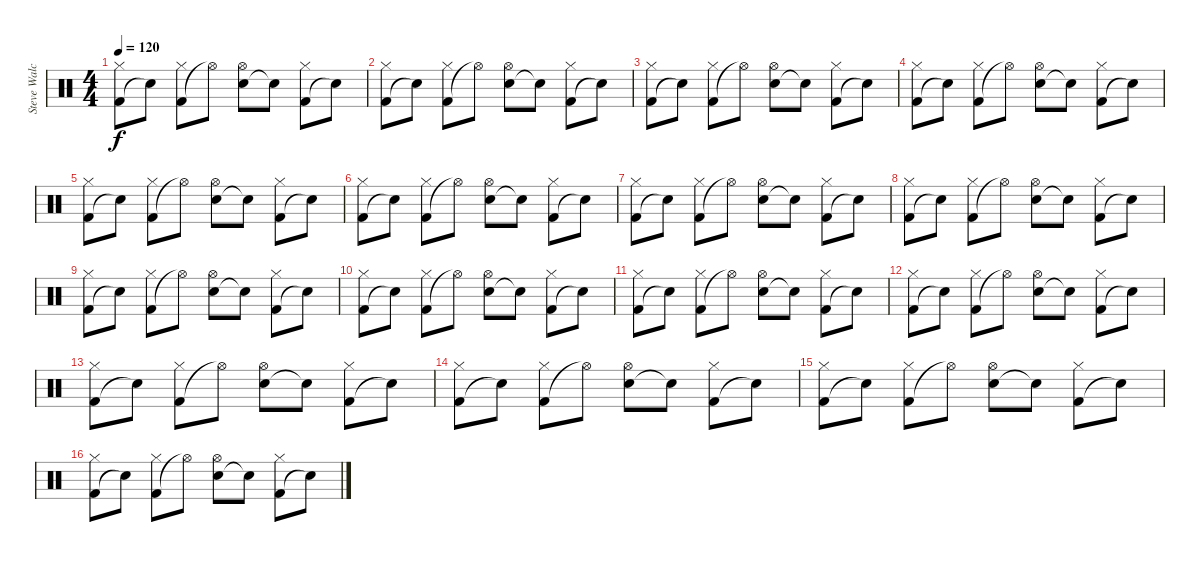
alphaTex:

\track ("Steve Walchoz" "Steve Walc") {instrument percussion}
\staff {score}
\articulation defaults
\ts (4 4)
\tempo 120
\clef neutral
\ks c
("Kick (hit) 2" "Hi-Hat (closed)").8{dy f} "Snare (hit)"{t}.8 ("Kick (hit) 2" "Hi-Hat (closed)").8 "Hi-Hat (open)"{t}.8 ("Electric Snare (hit)" "Hi-Hat (open)").8 "Snare (hit)"{t}.8 ("Kick (hit) 2" "Hi-Hat (closed)").8 "Snare (hit)"{t}.8 |
("Kick (hit) 2" "Hi-Hat (closed)").8 "Snare (hit)"{t}.8 ("Kick (hit) 2" "Hi-Hat (closed)").8 "Hi-Hat (open)"{t}.8 ("Electric Snare (hit)" "Hi-Hat (open)").8 "Snare (hit)"{t}.8 ("Kick (hit) 2" "Hi-Hat (closed)").8 "Snare (hit)"{t}.8 |
("Kick (hit) 2" "Hi-Hat (closed)").8 "Snare (hit)"{t}.8 ("Kick (hit) 2" "Hi-Hat (closed)").8 "Hi-Hat (open)"{t}.8 ("Electric Snare (hit)" "Hi-Hat (open)").8 "Snare (hit)"{t}.8 ("Kick (hit) 2" "Hi-Hat (closed)").8 "Snare (hit)"{t}.8 |
("Kick (hit) 2" "Hi-Hat (closed)").8 "Snare (hit)"{t}.8 ("Kick (hit) 2" "Hi-Hat (closed)").8 "Hi-Hat (open)"{t}.8 ("Electric Snare (hit)" "Hi-Hat (open)").8 "Snare (hit)"{t}.8 ("Kick (hit) 2" "Hi-Hat (closed)").8 "Snare (hit)"{t}.8 |
("Kick (hit) 2" "Hi-Hat (closed)").8 "Snare (hit)"{t}.8 ("Kick (hit) 2" "Hi-Hat (closed)").8 "Hi-Hat (open)"{t}.8 ("Electric Snare (hit)" "Hi-Hat (open)").8 "Snare (hit)"{t}.8 ("Kick (hit) 2" "Hi-Hat (closed)").8 "Snare (hit)"{t}.8 |
("Kick (hit) 2" "Hi-Hat (closed)").8 "Snare (hit)"{t}.8 ("Kick (hit) 2" "Hi-Hat (closed)").8 "Hi-Hat (open)"{t}.8 ("Electric Snare (hit)" "Hi-Hat (open)").8 "Snare (hit)"{t}.8 ("Kick (hit) 2" "Hi-Hat (closed)").8 "Snare (hit)"{t}.8 |
("Kick (hit) 2" "Hi-Hat (closed)").8 "Snare (hit)"{t}.8 ("Kick (hit) 2" "Hi-Hat (closed)").8 "Hi-Hat (open)"{t}.8 ("Electric Snare (hit)" "Hi-Hat (open)").8 "Snare (hit)"{t}.8 ("Kick (hit) 2" "Hi-Hat (closed)").8 "Snare (hit)"{t}.8 |
("Kick (hit) 2" "Hi-Hat (closed)").8 "Snare (hit)"{t}.8 ("Kick (hit) 2" "Hi-Hat (closed)").8 "Hi-Hat (open)"{t}.8 ("Electric Snare (hit)" "Hi-Hat (open)").8 "Snare (hit)"{t}.8 ("Kick (hit) 2" "Hi-Hat (closed)").8 "Snare (hit)"{t}.8 |
("Kick (hit) 2" "Hi-Hat (closed)").8 "Snare (hit)"{t}.8 ("Kick (hit) 2" "Hi-Hat (closed)").8 "Hi-Hat (open)"{t}.8 ("Electric Snare (hit)" "Hi-Hat (open)").8 "Snare (hit)"{t}.8 ("Kick (hit) 2" "Hi-Hat (closed)").8 "Snare (hit)"{t}.8 |
("Kick (hit) 2" "Hi-Hat (closed)").8 "Snare (hit)"{t}.8 ("Kick (hit) 2" "Hi-Hat (closed)").8 "Hi-Hat (open)"{t}.8 ("Electric Snare (hit)" "Hi-Hat (open)").8 "Snare (hit)"{t}.8 ("Kick (hit) 2" "Hi-Hat (closed)").8 "Snare (hit)"{t}.8 |
("Kick (hit) 2" "Hi-Hat (closed)").8 "Snare (hit)"{t}.8 ("Kick (hit) 2" "Hi-Hat (closed)").8 "Hi-Hat (open)"{t}.8 ("Electric Snare (hit)" "Hi-Hat (open)").8 "Snare (hit)"{t}.8 ("Kick (hit) 2" "Hi-Hat (closed)").8 "Snare (hit)"{t}.8 |
("Kick (hit) 2" "Hi-Hat (closed)").8 "Snare (hit)"{t}.8 ("Kick (hit) 2" "Hi-Hat (closed)").8 "Hi-Hat (open)"{t}.8 ("Electric Snare (hit)" "Hi-Hat (open)").8 "Snare (hit)"{t}.8 ("Kick (hit) 2" "Hi-Hat (closed)").8 "Snare (hit)"{t}.8 |
("Kick (hit) 2" "Hi-Hat (closed)").8 "Snare (hit)"{t}.8 ("Kick (hit) 2" "Hi-Hat (closed)").8 "Hi-Hat (open)"{t}.8 ("Electric Snare (hit)" "Hi-Hat (open)").8 "Snare (hit)"{t}.8 ("Kick (hit) 2" "Hi-Hat (closed)").8 "Snare (hit)"{t}.8 |
("Kick (hit) 2" "Hi-Hat (closed)").8 "Snare (hit)"{t}.8 ("Kick (hit) 2" "Hi-Hat (closed)").8 "Hi-Hat (open)"{t}.8 ("Electric Snare (hit)" "Hi-Hat (open)").8 "Snare (hit)"{t}.8 ("Kick (hit) 2" "Hi-Hat (closed)").8 "Snare (hit)"{t}.8 |
("Kick (hit) 2" "Hi-Hat (closed)").8 "Snare (hit)"{t}.8 ("Kick (hit) 2" "Hi-Hat (closed)").8 "Hi-Hat (open)"{t}.8 ("Electric Snare (hit)" "Hi-Hat (open)").8 "Snare (hit)"{t}.8 ("Kick (hit) 2" "Hi-Hat (closed)").8 "Snare (hit)"{t}.8 |
("Kick (hit) 2" "Hi-Hat (closed)").8 "Snare (hit)"{t}.8 ("Kick (hit) 2" "Hi-Hat (closed)").8 "Hi-Hat (open)"{t}.8 ("Electric Snare (hit)" "Hi-Hat (open)").8 "Snare (hit)"{t}.8 ("Kick (hit) 2" "Hi-Hat (closed)").8 "Snare (hit)"{t}.8
